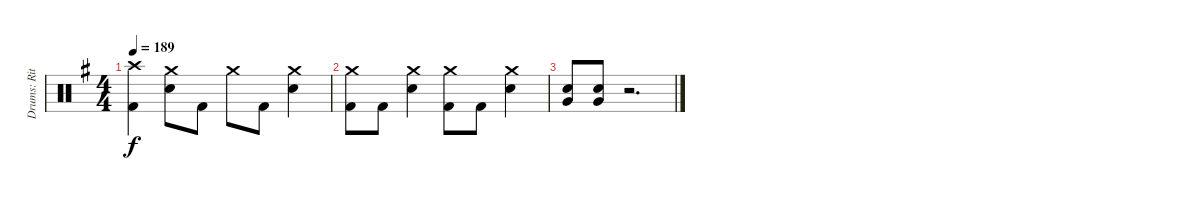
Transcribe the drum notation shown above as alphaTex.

\track ("Drums: Ritsu Tainaka" "Drums: Rit") {instrument percussion}
\staff {score}
\articulation defaults
\ts (4 4)
\tempo 189
\clef neutral
\ks g
("Crash high (hit)" "Kick (hit) 2").4{dy f} ("Crash medium (hit)" "Electric Snare (hit)").8 "Kick (hit) 2".8 "Crash medium (hit)".8 "Kick (hit) 2".8 ("Crash medium (hit)" "Electric Snare (hit)").4 |
("Crash medium (hit)" "Kick (hit) 2").8 "Kick (hit) 2".8 ("Crash medium (hit)" "Electric Snare (hit)").4 ("Crash medium (hit)" "Kick (hit) 2").8 "Kick (hit) 2".8 ("Crash medium (hit)" "Electric Snare (hit)").4 |
("Electric Snare (hit)" "Very Low Tom (hit)").8 ("Electric Snare (hit)" "Very Low Tom (hit)").8 r.2{d}
